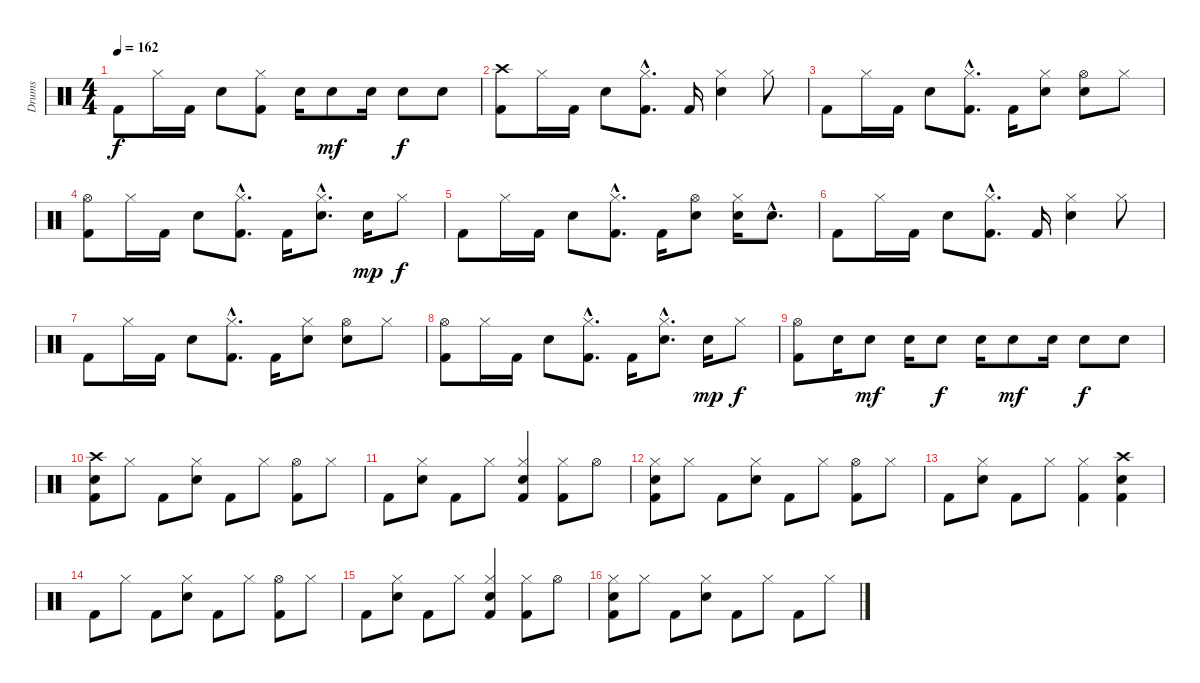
\track ("Drums" "Drums") {instrument percussion}
\staff {score}
\articulation defaults
\ts (4 4)
\tempo 162
\clef neutral
\ks c "Kick (hit) 2".8{dy f} "Hi-Hat (closed)".16 "Kick (hit) 2".16 "Electric Snare (hit)".8
("Hi-Hat (closed)" "Kick (hit) 2").8 "Electric Snare (hit)".16 "Electric Snare (hit)".8{dy mf} "Electric Snare (hit)".16 "Electric Snare (hit)".8{dy f} "Electric Snare (hit)".8 |
("Crash high (hit)" "Kick (hit) 2").8 "Hi-Hat (closed)".16 "Kick (hit) 2".16 "Electric Snare (hit)".8 ("Hi-Hat (closed)"{hac} "Kick (hit) 2"{hac}).8{d} "Kick (hit) 2".16 ("Hi-Hat (closed)" "Electric Snare (hit)").4 "Hi-Hat (closed)".8 |
"Kick (hit) 2".8 "Hi-Hat (closed)".16 "Kick (hit) 2".16 "Electric Snare (hit)".8 ("Hi-Hat (closed)"{hac} "Kick (hit) 2"{hac}).8{d} "Kick (hit) 2".16 ("Hi-Hat (closed)" "Electric Snare (hit)").8 ("Hi-Hat (open)" "Electric Snare (hit)").8 "Hi-Hat (closed)".8 |
("Hi-Hat (open)" "Kick (hit) 2").8 "Hi-Hat (closed)".16 "Kick (hit) 2".16 "Electric Snare (hit)".8 ("Hi-Hat (closed)"{hac} "Kick (hit) 2"{hac}).8{d} "Kick (hit) 2".16 ("Hi-Hat (closed)"{hac} "Electric Snare (hit)"{hac}).8{d} "Electric Snare (hit)".16{dy mp} "Hi-Hat (closed)".8{dy f} |
"Kick (hit) 2".8 "Hi-Hat (closed)".16 "Kick (hit) 2".16 "Electric Snare (hit)".8 ("Hi-Hat (closed)"{hac} "Kick (hit) 2"{hac}).8{d} "Kick (hit) 2".16 ("Hi-Hat (open)" "Electric Snare (hit)").8 ("Hi-Hat (closed)" "Electric Snare (hit)").16 "Electric Snare (hit)"{hac}.8{d} |
"Kick (hit) 2".8 "Hi-Hat (closed)".16 "Kick (hit) 2".16 "Electric Snare (hit)".8 ("Hi-Hat (closed)"{hac} "Kick (hit) 2"{hac}).8{d} "Kick (hit) 2".16 ("Hi-Hat (closed)" "Electric Snare (hit)").4 "Hi-Hat (closed)".8 |
"Kick (hit) 2".8 "Hi-Hat (closed)".16 "Kick (hit) 2".16 "Electric Snare (hit)".8 ("Hi-Hat (closed)"{hac} "Kick (hit) 2"{hac}).8{d} "Kick (hit) 2".16 ("Hi-Hat (closed)" "Electric Snare (hit)").8 ("Hi-Hat (open)" "Electric Snare (hit)").8 "Hi-Hat (closed)".8 |
("Hi-Hat (open)" "Kick (hit) 2").8 "Hi-Hat (closed)".16 "Kick (hit) 2".16 "Electric Snare (hit)".8 ("Hi-Hat (closed)"{hac} "Kick (hit) 2"{hac}).8{d} "Kick (hit) 2".16 ("Hi-Hat (closed)"{hac} "Electric Snare (hit)"{hac}).8{d} "Electric Snare (hit)".16{dy mp} "Hi-Hat (closed)".8{dy f} |
("Hi-Hat (open)" "Kick (hit) 2").8 "Electric Snare (hit)".16 "Electric Snare (hit)".8{dy mf} "Electric Snare (hit)".16 "Electric Snare (hit)".8{dy f} "Electric Snare (hit)".16 "Electric Snare (hit)".8{dy mf} "Electric Snare (hit)".16 "Electric Snare (hit)".8{dy f} "Electric Snare (hit)".8 |
("Crash high (hit)" "Electric Snare (hit)" "Kick (hit) 2").8 "Hi-Hat (closed)".8 "Kick (hit) 2".8 ("Hi-Hat (closed)" "Electric Snare (hit)").8 "Kick (hit) 2".8 "Hi-Hat (closed)".8 ("Hi-Hat (open)" "Kick (hit) 2").8 "Hi-Hat (closed)".8 |
"Kick (hit) 2".8 ("Hi-Hat (closed)" "Electric Snare (hit)").8 "Kick (hit) 2".8 "Hi-Hat (closed)".8 ("Hi-Hat (closed)" "Electric Snare (hit)" "Kick (hit) 2").4 ("Hi-Hat (closed)" "Kick (hit) 2").8 "Hi-Hat (open)".8 |
("Hi-Hat (closed)" "Electric Snare (hit)" "Kick (hit) 2").8 "Hi-Hat (closed)".8 "Kick (hit) 2".8 ("Hi-Hat (closed)" "Electric Snare (hit)").8 "Kick (hit) 2".8 "Hi-Hat (closed)".8 ("Hi-Hat (open)" "Kick (hit) 2").8 "Hi-Hat (closed)".8 |
"Kick (hit) 2".8 ("Hi-Hat (closed)" "Electric Snare (hit)").8 "Kick (hit) 2".8 "Hi-Hat (closed)".8 ("Hi-Hat (closed)" "Kick (hit) 2").4 ("Crash high (hit)" "Electric Snare (hit)" "Kick (hit) 2").4 |
"Kick (hit) 2".8 "Hi-Hat (closed)".8 "Kick (hit) 2".8 ("Hi-Hat (closed)" "Electric Snare (hit)").8 "Kick (hit) 2".8 "Hi-Hat (closed)".8 ("Hi-Hat (open)" "Kick (hit) 2").8 "Hi-Hat (closed)".8 |
"Kick (hit) 2".8 ("Hi-Hat (closed)" "Electric Snare (hit)").8 "Kick (hit) 2".8 "Hi-Hat (closed)".8 ("Hi-Hat (closed)" "Electric Snare (hit)" "Kick (hit) 2").4 ("Hi-Hat (closed)" "Kick (hit) 2").8 "Hi-Hat (open)".8 |
("Hi-Hat (closed)" "Electric Snare (hit)" "Kick (hit) 2").8 "Hi-Hat (closed)".8 "Kick (hit) 2".8 ("Hi-Hat (closed)" "Electric Snare (hit)").8 "Kick (hit) 2".8 "Hi-Hat (closed)".8 "Kick (hit) 2".8 "Hi-Hat (closed)".8
